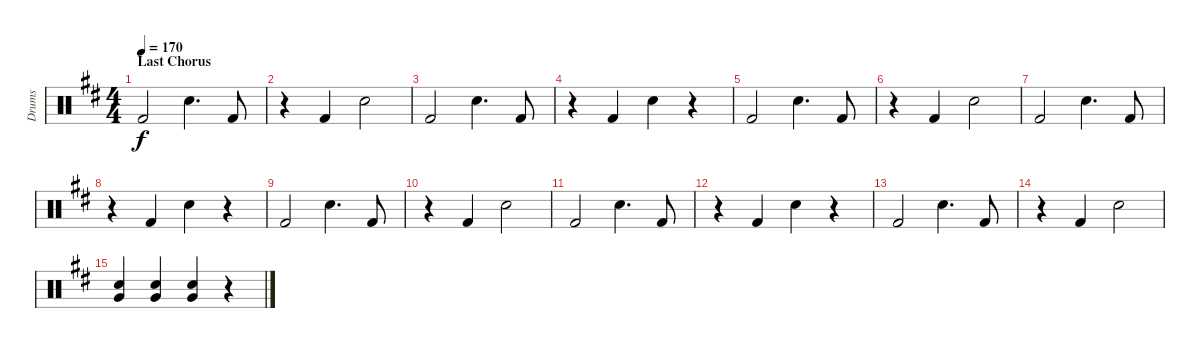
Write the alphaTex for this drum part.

\track ("Drums" "Drums") {instrument percussion}
\staff {score}
\articulation defaults
\ts (4 4)
\section ("" "Last Chorus")
\tempo 170
\clef neutral
\ks d "Kick (hit) 2".2{dy f} "Electric Snare (hit)".4{d} "Kick (hit) 2".8
|
r.4 "Kick (hit) 2".4 "Electric Snare (hit)".2 |
"Kick (hit) 2".2 "Electric Snare (hit)".4{d} "Kick (hit) 2".8 |
r.4 "Kick (hit) 2".4 "Electric Snare (hit)".4 r.4 |
"Kick (hit) 2".2 "Electric Snare (hit)".4{d} "Kick (hit) 2".8 |
r.4 "Kick (hit) 2".4 "Electric Snare (hit)".2 |
"Kick (hit) 2".2 "Electric Snare (hit)".4{d} "Kick (hit) 2".8 |
r.4 "Kick (hit) 2".4 "Electric Snare (hit)".4 r.4 |
"Kick (hit) 2".2 "Electric Snare (hit)".4{d} "Kick (hit) 2".8 |
r.4 "Kick (hit) 2".4 "Electric Snare (hit)".2 |
"Kick (hit) 2".2 "Electric Snare (hit)".4{d} "Kick (hit) 2".8 |
r.4 "Kick (hit) 2".4 "Electric Snare (hit)".4 r.4 |
"Kick (hit) 2".2 "Electric Snare (hit)".4{d} "Kick (hit) 2".8 |
r.4 "Kick (hit) 2".4 "Electric Snare (hit)".2 |
("Very Low Tom (hit)" "Electric Snare (hit)").4 ("Very Low Tom (hit)" "Electric Snare (hit)").4 ("Very Low Tom (hit)" "Electric Snare (hit)").4 r.4
